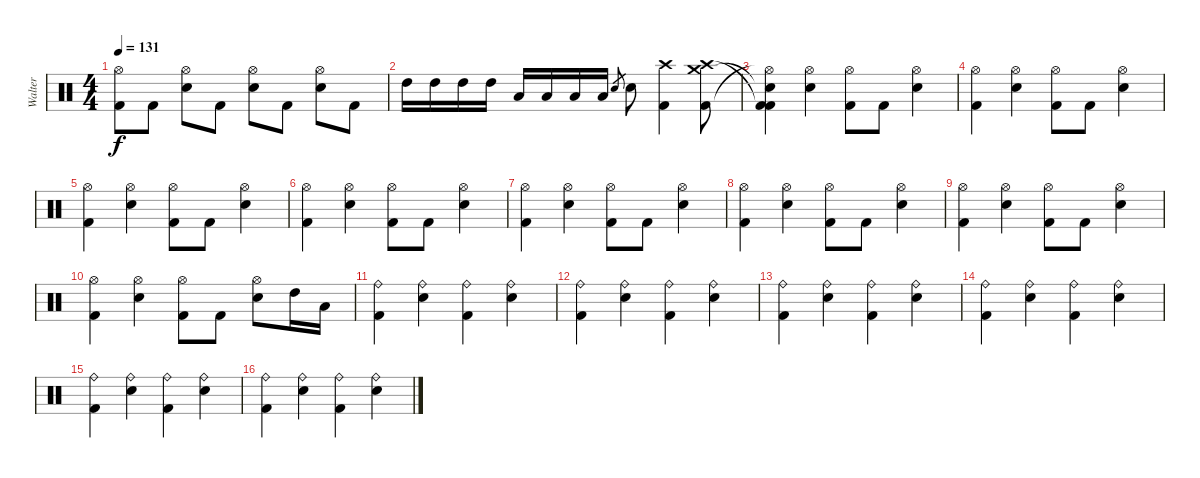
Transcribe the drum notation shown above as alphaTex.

\track ("Walter" "Walter") {instrument percussion}
\staff {score}
\articulation defaults
\ts (4 4)
\tempo 131
\clef neutral
\ks c
("Hi-Hat (open)" "Kick (hit) 2").8{dy f} "Kick (hit) 2".8 ("Hi-Hat (open)" "Electric Snare (hit)").8 "Kick (hit) 2".8 ("Hi-Hat (open)" "Electric Snare (hit)").8 "Kick (hit) 2".8 ("Hi-Hat (open)" "Electric Snare (hit)").8 "Kick (hit) 2".8 |
"High Tom (hit)".16 "High Tom (hit)".16 "High Tom (hit)".16 "High Tom (hit)".16 "Low Tom (hit)".16 "Low Tom (hit)".16 "Low Tom (hit)".16 "Low Tom (hit)".16 "Electric Snare (hit)".8{gr} "Electric Snare (hit)".8 ("Kick (hit) 2" "Crash high (hit)").4 ("Kick (hit) 2" "Crash high (hit)" "Crash medium (hit)").8 |
("Hi-Hat (open)"{t} "Kick (hit) 2"{t} "Snare (hit)"{t} "Kick (hit) 2").4 ("Hi-Hat (open)" "Electric Snare (hit)").4 ("Hi-Hat (open)" "Kick (hit) 2").8 "Kick (hit) 2".8 ("Hi-Hat (open)" "Electric Snare (hit)").4 |
("Hi-Hat (open)" "Kick (hit) 2").4 ("Hi-Hat (open)" "Electric Snare (hit)").4 ("Hi-Hat (open)" "Kick (hit) 2").8 "Kick (hit) 2".8 ("Hi-Hat (open)" "Electric Snare (hit)").4 |
("Hi-Hat (open)" "Kick (hit) 2").4 ("Hi-Hat (open)" "Electric Snare (hit)").4 ("Hi-Hat (open)" "Kick (hit) 2").8 "Kick (hit) 2".8 ("Hi-Hat (open)" "Electric Snare (hit)").4 |
("Hi-Hat (open)" "Kick (hit) 2").4 ("Hi-Hat (open)" "Electric Snare (hit)").4 ("Hi-Hat (open)" "Kick (hit) 2").8 "Kick (hit) 2".8 ("Hi-Hat (open)" "Electric Snare (hit)").4 |
("Hi-Hat (open)" "Kick (hit) 2").4 ("Hi-Hat (open)" "Electric Snare (hit)").4 ("Hi-Hat (open)" "Kick (hit) 2").8 "Kick (hit) 2".8 ("Hi-Hat (open)" "Electric Snare (hit)").4 |
("Hi-Hat (open)" "Kick (hit) 2").4 ("Hi-Hat (open)" "Electric Snare (hit)").4 ("Hi-Hat (open)" "Kick (hit) 2").8 "Kick (hit) 2".8 ("Hi-Hat (open)" "Electric Snare (hit)").4 |
("Hi-Hat (open)" "Kick (hit) 2").4 ("Hi-Hat (open)" "Electric Snare (hit)").4 ("Hi-Hat (open)" "Kick (hit) 2").8 "Kick (hit) 2".8 ("Hi-Hat (open)" "Electric Snare (hit)").4 |
("Hi-Hat (open)" "Kick (hit) 2").4 ("Hi-Hat (open)" "Electric Snare (hit)").4 ("Hi-Hat (open)" "Kick (hit) 2").8 "Kick (hit) 2".8 ("Hi-Hat (open)" "Electric Snare (hit)").8 "High Tom (hit)".16 "Low Tom (hit)".16 |
("Ride (bell)" "Kick (hit) 2").4 ("Ride (bell)" "Electric Snare (hit)").4 ("Ride (bell)" "Kick (hit) 2").4 ("Ride (bell)" "Electric Snare (hit)").4 |
("Ride (bell)" "Kick (hit) 2").4 ("Ride (bell)" "Electric Snare (hit)").4 ("Ride (bell)" "Kick (hit) 2").4 ("Ride (bell)" "Electric Snare (hit)").4 |
("Ride (bell)" "Kick (hit) 2").4 ("Ride (bell)" "Electric Snare (hit)").4 ("Ride (bell)" "Kick (hit) 2").4 ("Ride (bell)" "Electric Snare (hit)").4 |
("Ride (bell)" "Kick (hit) 2").4 ("Ride (bell)" "Electric Snare (hit)").4 ("Ride (bell)" "Kick (hit) 2").4 ("Ride (bell)" "Electric Snare (hit)").4 |
("Ride (bell)" "Kick (hit) 2").4 ("Ride (bell)" "Electric Snare (hit)").4 ("Ride (bell)" "Kick (hit) 2").4 ("Ride (bell)" "Electric Snare (hit)").4 |
("Ride (bell)" "Kick (hit) 2").4 ("Ride (bell)" "Electric Snare (hit)").4 ("Ride (bell)" "Kick (hit) 2").4 ("Ride (bell)" "Electric Snare (hit)").4
